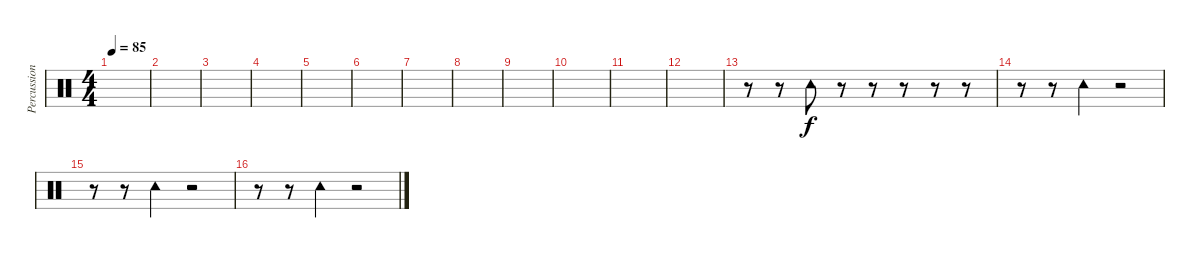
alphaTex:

\track ("Percussion" "Percussion") {instrument percussion}
\staff {score}
\articulation defaults
\ts (4 4)
\tempo 85
\clef neutral
\ks c
|
|
|
|
|
|
|
|
|
|
|
|
r.8 r.8 "Tambourine (hit)".8 r.8 r.8 r.8 r.8 r.8 |
r.8 r.8 "Tambourine (hit)".4 r.2 |
r.8 r.8 "Tambourine (hit)".4 r.2 |
r.8 r.8 "Tambourine (hit)".4 r.2
